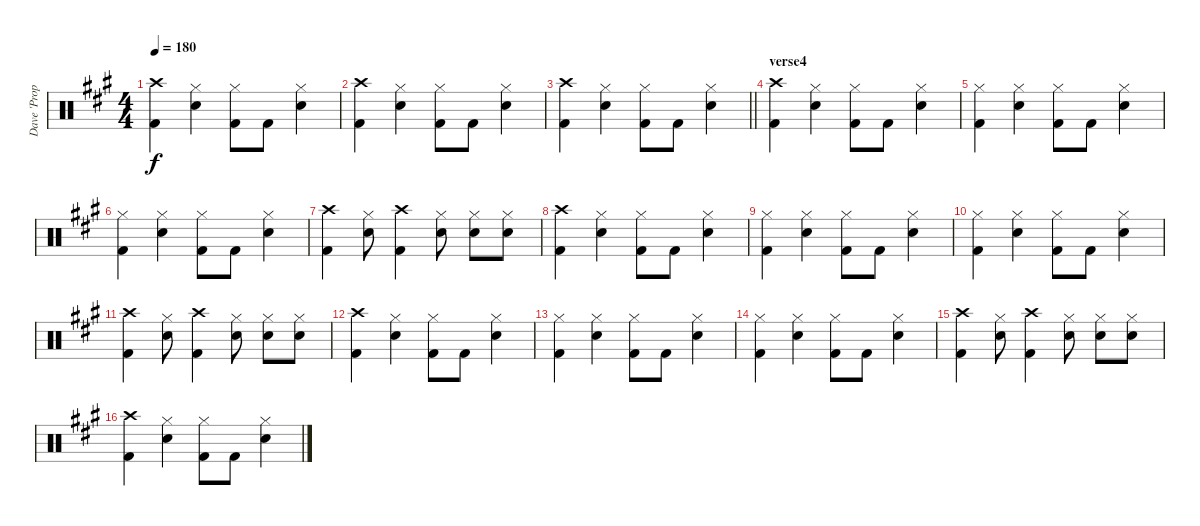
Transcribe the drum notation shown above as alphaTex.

\track ("Dave 'Proper' Caution" "Dave 'Prop") {instrument percussion}
\staff {score}
\articulation defaults
\ts (4 4)
\tempo 180
\clef neutral
\ks a
("Crash high (hit)" "Kick (hit) 2").4{dy f} ("Hi-Hat (closed)" "Electric Snare (hit)").4 ("Hi-Hat (closed)" "Kick (hit) 2").8 "Kick (hit) 2".8 ("Hi-Hat (closed)" "Electric Snare (hit)").4 |
("Crash high (hit)" "Kick (hit) 2").4 ("Hi-Hat (closed)" "Electric Snare (hit)").4 ("Hi-Hat (closed)" "Kick (hit) 2").8 "Kick (hit) 2".8 ("Hi-Hat (closed)" "Electric Snare (hit)").4 |
\barLineRight lightlight
("Crash high (hit)" "Kick (hit) 2").4 ("Hi-Hat (closed)" "Electric Snare (hit)").4 ("Hi-Hat (closed)" "Kick (hit) 2").8 "Kick (hit) 2".8 ("Hi-Hat (closed)" "Electric Snare (hit)").4 |
\section ("" "verse4")
("Crash high (hit)" "Kick (hit) 2").4 ("Hi-Hat (closed)" "Electric Snare (hit)").4 ("Hi-Hat (closed)" "Kick (hit) 2").8 "Kick (hit) 2".8 ("Hi-Hat (closed)" "Electric Snare (hit)").4 |
("Hi-Hat (closed)" "Kick (hit) 2").4 ("Hi-Hat (closed)" "Electric Snare (hit)").4 ("Hi-Hat (closed)" "Kick (hit) 2").8 "Kick (hit) 2".8 ("Hi-Hat (closed)" "Electric Snare (hit)").4 |
("Hi-Hat (closed)" "Kick (hit) 2").4 ("Hi-Hat (closed)" "Electric Snare (hit)").4 ("Hi-Hat (closed)" "Kick (hit) 2").8 "Kick (hit) 2".8 ("Hi-Hat (closed)" "Electric Snare (hit)").4 |
("Crash high (hit)" "Kick (hit) 2").4 ("Hi-Hat (closed)" "Electric Snare (hit)").8 ("Crash high (hit)" "Kick (hit) 2").4 ("Hi-Hat (closed)" "Electric Snare (hit)").8 ("Hi-Hat (closed)" "Electric Snare (hit)").8 ("Hi-Hat (closed)" "Electric Snare (hit)").8 |
("Crash high (hit)" "Kick (hit) 2").4 ("Hi-Hat (closed)" "Electric Snare (hit)").4 ("Hi-Hat (closed)" "Kick (hit) 2").8 "Kick (hit) 2".8 ("Hi-Hat (closed)" "Electric Snare (hit)").4 |
("Hi-Hat (closed)" "Kick (hit) 2").4 ("Hi-Hat (closed)" "Electric Snare (hit)").4 ("Hi-Hat (closed)" "Kick (hit) 2").8 "Kick (hit) 2".8 ("Hi-Hat (closed)" "Electric Snare (hit)").4 |
("Hi-Hat (closed)" "Kick (hit) 2").4 ("Hi-Hat (closed)" "Electric Snare (hit)").4 ("Hi-Hat (closed)" "Kick (hit) 2").8 "Kick (hit) 2".8 ("Hi-Hat (closed)" "Electric Snare (hit)").4 |
("Crash high (hit)" "Kick (hit) 2").4 ("Hi-Hat (closed)" "Electric Snare (hit)").8 ("Crash high (hit)" "Kick (hit) 2").4 ("Hi-Hat (closed)" "Electric Snare (hit)").8 ("Hi-Hat (closed)" "Electric Snare (hit)").8 ("Hi-Hat (closed)" "Electric Snare (hit)").8 |
("Crash high (hit)" "Kick (hit) 2").4 ("Hi-Hat (closed)" "Electric Snare (hit)").4 ("Hi-Hat (closed)" "Kick (hit) 2").8 "Kick (hit) 2".8 ("Hi-Hat (closed)" "Electric Snare (hit)").4 |
("Hi-Hat (closed)" "Kick (hit) 2").4 ("Hi-Hat (closed)" "Electric Snare (hit)").4 ("Hi-Hat (closed)" "Kick (hit) 2").8 "Kick (hit) 2".8 ("Hi-Hat (closed)" "Electric Snare (hit)").4 |
("Hi-Hat (closed)" "Kick (hit) 2").4 ("Hi-Hat (closed)" "Electric Snare (hit)").4 ("Hi-Hat (closed)" "Kick (hit) 2").8 "Kick (hit) 2".8 ("Hi-Hat (closed)" "Electric Snare (hit)").4 |
("Crash high (hit)" "Kick (hit) 2").4 ("Hi-Hat (closed)" "Electric Snare (hit)").8 ("Crash high (hit)" "Kick (hit) 2").4 ("Hi-Hat (closed)" "Electric Snare (hit)").8 ("Hi-Hat (closed)" "Electric Snare (hit)").8 ("Hi-Hat (closed)" "Electric Snare (hit)").8 |
("Crash high (hit)" "Kick (hit) 2").4 ("Hi-Hat (closed)" "Electric Snare (hit)").4 ("Hi-Hat (closed)" "Kick (hit) 2").8 "Kick (hit) 2".8 ("Hi-Hat (closed)" "Electric Snare (hit)").4
